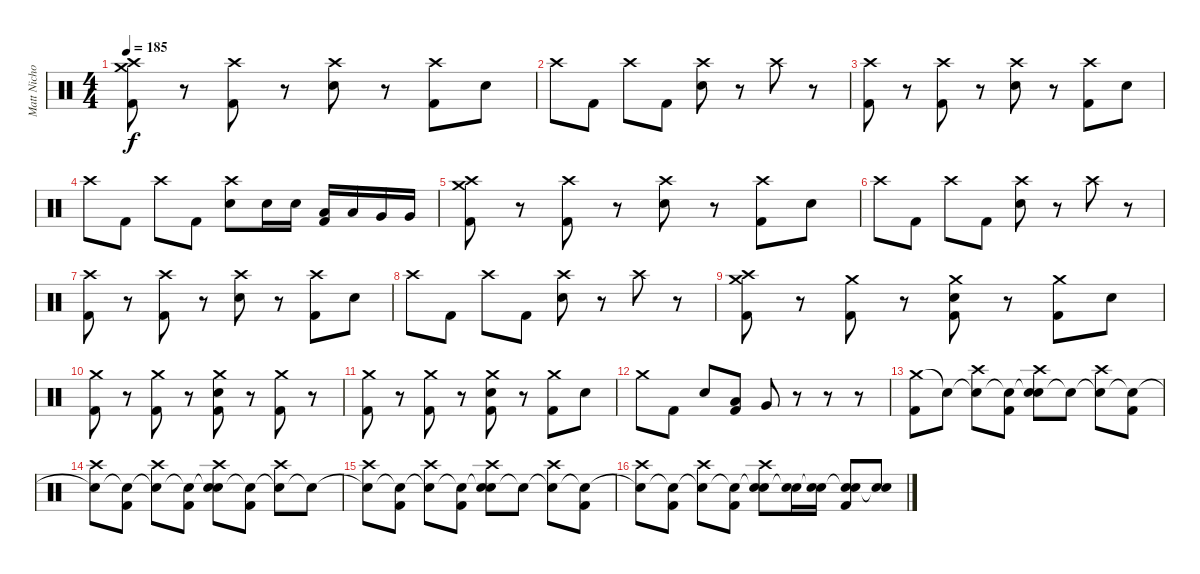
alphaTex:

\track ("Matt Nicholls" "Matt Nicho") {instrument percussion}
\staff {score}
\articulation defaults
\ts (4 4)
\tempo 185
\clef neutral
\ks c
("Crash medium (hit)" "Crash high (hit)" "Kick (hit) 2").8{dy f} r.8 ("Crash high (hit)" "Kick (hit) 2").8 r.8 ("Crash high (hit)" "Electric Snare (hit)").8 r.8 ("Crash high (hit)" "Kick (hit) 2").8 "Electric Snare (hit)".8 |
"Crash high (hit)".8 "Kick (hit) 2".8 "Crash high (hit)".8 "Kick (hit) 2".8 ("Crash high (hit)" "Electric Snare (hit)").8 r.8 "Crash high (hit)".8 r.8 |
("Crash high (hit)" "Kick (hit) 2").8 r.8 ("Crash high (hit)" "Kick (hit) 2").8 r.8 ("Crash high (hit)" "Electric Snare (hit)").8 r.8 ("Crash high (hit)" "Kick (hit) 2").8 "Electric Snare (hit)".8 |
"Crash high (hit)".8 "Kick (hit) 2".8 "Crash high (hit)".8 "Kick (hit) 2".8 ("Crash high (hit)" "Electric Snare (hit)").8 "Electric Snare (hit)".16 "Electric Snare (hit)".16 ("Low Tom (hit)" "Kick (hit) 2").16 "Low Tom (hit)".16 "Very Low Tom (hit)".16 "Very Low Tom (hit)".16 |
("Crash medium (hit)" "Crash high (hit)" "Kick (hit) 2").8 r.8 ("Crash high (hit)" "Kick (hit) 2").8 r.8 ("Crash high (hit)" "Electric Snare (hit)").8 r.8 ("Crash high (hit)" "Kick (hit) 2").8 "Electric Snare (hit)".8 |
"Crash high (hit)".8 "Kick (hit) 2".8 "Crash high (hit)".8 "Kick (hit) 2".8 ("Crash high (hit)" "Electric Snare (hit)").8 r.8 "Crash high (hit)".8 r.8 |
("Crash high (hit)" "Kick (hit) 2").8 r.8 ("Crash high (hit)" "Kick (hit) 2").8 r.8 ("Crash high (hit)" "Electric Snare (hit)").8 r.8 ("Crash high (hit)" "Kick (hit) 2").8 "Electric Snare (hit)".8 |
"Crash high (hit)".8 "Kick (hit) 2".8 "Crash high (hit)".8 "Kick (hit) 2".8 ("Crash high (hit)" "Electric Snare (hit)").8 r.8 "Crash high (hit)".8 r.8 |
("Crash medium (hit)" "Crash high (hit)" "Kick (hit) 2").8 r.8 ("Crash medium (hit)" "Kick (hit) 2").8 r.8 ("Crash medium (hit)" "Electric Snare (hit)" "Kick (hit) 2").8 r.8 ("Crash medium (hit)" "Kick (hit) 2").8 "Electric Snare (hit)".8 |
("Crash medium (hit)" "Kick (hit) 2").8 r.8 ("Crash medium (hit)" "Kick (hit) 2").8 r.8 ("Crash medium (hit)" "Electric Snare (hit)" "Kick (hit) 2").8 r.8 ("Crash medium (hit)" "Kick (hit) 2").8 r.8 |
("Crash medium (hit)" "Kick (hit) 2").8 r.8 ("Crash medium (hit)" "Kick (hit) 2").8 r.8 ("Crash medium (hit)" "Electric Snare (hit)" "Kick (hit) 2").8 r.8 ("Crash medium (hit)" "Kick (hit) 2").8 "Electric Snare (hit)".8 |
"Crash medium (hit)".8 "Kick (hit) 2".8 "Electric Snare (hit)".8 ("Low Tom (hit)" "Kick (hit) 2").8 "Very Low Tom (hit)".8 r.8 r.8 r.8 |
("Crash medium (hit)" "Kick (hit) 2").8 "Snare (hit)"{t}.8 ("Snare (hit)"{t} "Crash high (hit)").8 ("Snare (hit)"{t} "Kick (hit) 2").8 ("Snare (hit)"{t} "Crash high (hit)" "Electric Snare (hit)").8 "Snare (hit)"{t}.8 ("Snare (hit)"{t} "Crash high (hit)").8 ("Snare (hit)"{t} "Kick (hit) 2").8 |
("Snare (hit)"{t} "Crash high (hit)").8 ("Snare (hit)"{t} "Kick (hit) 2").8 ("Snare (hit)"{t} "Crash high (hit)").8 ("Snare (hit)"{t} "Kick (hit) 2").8 ("Snare (hit)"{t} "Crash high (hit)" "Electric Snare (hit)").8 ("Snare (hit)"{t} "Kick (hit) 2").8 ("Snare (hit)"{t} "Crash high (hit)").8 "Snare (hit)"{t}.8 |
("Snare (hit)"{t} "Crash high (hit)").8 ("Snare (hit)"{t} "Kick (hit) 2").8 ("Snare (hit)"{t} "Crash high (hit)").8 ("Snare (hit)"{t} "Kick (hit) 2").8 ("Snare (hit)"{t} "Crash high (hit)" "Electric Snare (hit)").8 "Snare (hit)"{t}.8 ("Snare (hit)"{t} "Crash high (hit)").8 ("Snare (hit)"{t} "Kick (hit) 2").8 |
("Snare (hit)"{t} "Crash high (hit)").8 ("Snare (hit)"{t} "Kick (hit) 2").8 ("Snare (hit)"{t} "Crash high (hit)").8 ("Snare (hit)"{t} "Kick (hit) 2").8 ("Snare (hit)"{t} "Crash high (hit)" "Electric Snare (hit)").8 ("Snare (hit)"{t} "Electric Snare (hit)").16 ("Snare (hit)"{t} "Electric Snare (hit)").16 ("Snare (hit)"{t} "Electric Snare (hit)" "Kick (hit) 2").8 ("Snare (hit)"{t} "Electric Snare (hit)").8
